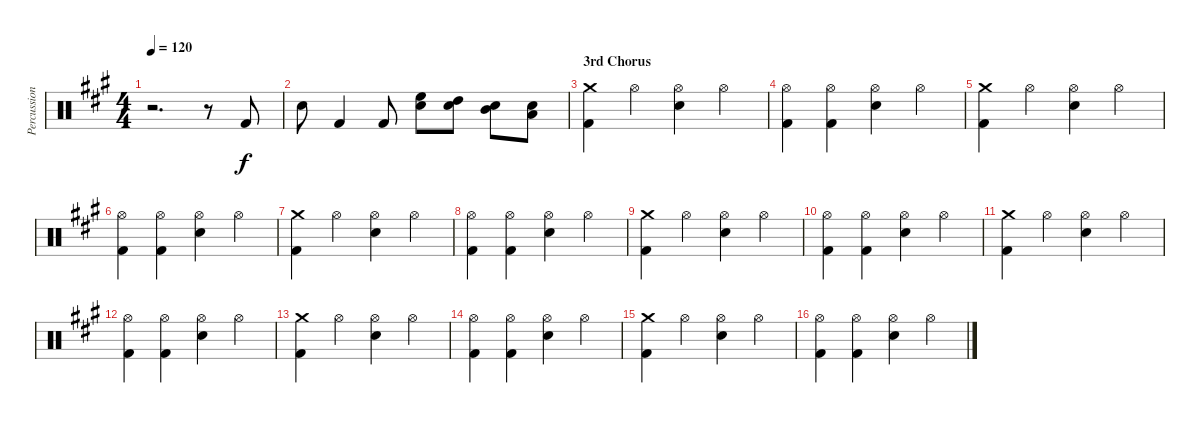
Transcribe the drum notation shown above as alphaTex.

\track ("Percussion" "Percussion") {instrument percussion}
\staff {score}
\articulation defaults
\ts (4 4)
\tempo 120
\clef neutral
\ks a
r.2{d dy f} r.8 "Kick (hit) 2".8 |
"Snare (hit) 2".8 "Kick (hit) 2".4 "Kick (hit) 2".8 ("High Floor Tom (hit)" "Snare (hit) 2").8 ("High Tom (hit)" "Snare (hit) 2").8 ("Mid Tom (hit)" "Snare (hit) 2").8 ("Low Tom (hit)" "Snare (hit) 2").8 |
\section ("" "3rd Chorus")
("Crash medium (hit)" "Kick (hit) 2").4 "Hi-Hat (open)".4 ("Hi-Hat (open)" "Snare (hit) 2").4 "Hi-Hat (open)".4 |
("Hi-Hat (open)" "Kick (hit) 2").4 ("Hi-Hat (open)" "Kick (hit) 2").4 ("Hi-Hat (open)" "Snare (hit) 2").4 "Hi-Hat (open)".4 |
("Crash medium (hit)" "Kick (hit) 2").4 "Hi-Hat (open)".4 ("Hi-Hat (open)" "Snare (hit) 2").4 "Hi-Hat (open)".4 |
("Hi-Hat (open)" "Kick (hit) 2").4 ("Hi-Hat (open)" "Kick (hit) 2").4 ("Hi-Hat (open)" "Snare (hit) 2").4 "Hi-Hat (open)".4 |
("Crash medium (hit)" "Kick (hit) 2").4 "Hi-Hat (open)".4 ("Hi-Hat (open)" "Snare (hit) 2").4 "Hi-Hat (open)".4 |
("Hi-Hat (open)" "Kick (hit) 2").4 ("Hi-Hat (open)" "Kick (hit) 2").4 ("Hi-Hat (open)" "Snare (hit) 2").4 "Hi-Hat (open)".4 |
("Crash medium (hit)" "Kick (hit) 2").4 "Hi-Hat (open)".4 ("Hi-Hat (open)" "Snare (hit) 2").4 "Hi-Hat (open)".4 |
("Hi-Hat (open)" "Kick (hit) 2").4 ("Hi-Hat (open)" "Kick (hit) 2").4 ("Hi-Hat (open)" "Snare (hit) 2").4 "Hi-Hat (open)".4 |
("Crash medium (hit)" "Kick (hit) 2").4 "Hi-Hat (open)".4 ("Hi-Hat (open)" "Snare (hit) 2").4 "Hi-Hat (open)".4 |
("Hi-Hat (open)" "Kick (hit) 2").4 ("Hi-Hat (open)" "Kick (hit) 2").4 ("Hi-Hat (open)" "Snare (hit) 2").4 "Hi-Hat (open)".4 |
("Crash medium (hit)" "Kick (hit) 2").4 "Hi-Hat (open)".4 ("Hi-Hat (open)" "Snare (hit) 2").4 "Hi-Hat (open)".4 |
("Hi-Hat (open)" "Kick (hit) 2").4 ("Hi-Hat (open)" "Kick (hit) 2").4 ("Hi-Hat (open)" "Snare (hit) 2").4 "Hi-Hat (open)".4 |
("Crash medium (hit)" "Kick (hit) 2").4 "Hi-Hat (open)".4 ("Hi-Hat (open)" "Snare (hit) 2").4 "Hi-Hat (open)".4 |
("Hi-Hat (open)" "Kick (hit) 2").4 ("Hi-Hat (open)" "Kick (hit) 2").4 ("Hi-Hat (open)" "Snare (hit) 2").4 "Hi-Hat (open)".4
